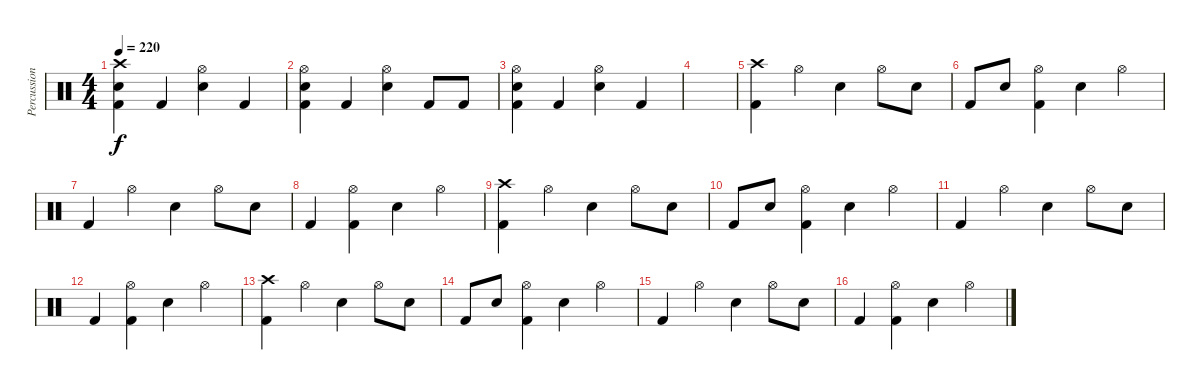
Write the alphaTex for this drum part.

\track ("Percussion" "Percussion") {instrument percussion}
\staff {score}
\articulation defaults
\ts (4 4)
\tempo 220
\clef neutral
\ks c
("Crash high (hit)" "Electric Snare (hit)" "Kick (hit) 2").4{dy f} "Kick (hit) 2".4 ("Hi-Hat (open)" "Electric Snare (hit)").4 "Kick (hit) 2".4 |
("Hi-Hat (open)" "Electric Snare (hit)" "Kick (hit) 2").4 "Kick (hit) 2".4 ("Hi-Hat (open)" "Electric Snare (hit)").4 "Kick (hit) 2".8 "Kick (hit) 2".8 |
("Hi-Hat (open)" "Electric Snare (hit)" "Kick (hit) 2").4 "Kick (hit) 2".4 ("Hi-Hat (open)" "Electric Snare (hit)").4 "Kick (hit) 2".4 |
|
("Crash high (hit)" "Kick (hit) 2").4 "Hi-Hat (open)".4 "Electric Snare (hit)".4 "Hi-Hat (open)".8 "Electric Snare (hit)".8 |
"Kick (hit) 2".8 "Electric Snare (hit)".8 ("Hi-Hat (open)" "Kick (hit) 2").4 "Electric Snare (hit)".4 "Hi-Hat (open)".4 |
"Kick (hit) 2".4 "Hi-Hat (open)".4 "Electric Snare (hit)".4 "Hi-Hat (open)".8 "Electric Snare (hit)".8 |
"Kick (hit) 2".4 ("Hi-Hat (open)" "Kick (hit) 2").4 "Electric Snare (hit)".4 "Hi-Hat (open)".4 |
("Crash high (hit)" "Kick (hit) 2").4 "Hi-Hat (open)".4 "Electric Snare (hit)".4 "Hi-Hat (open)".8 "Electric Snare (hit)".8 |
"Kick (hit) 2".8 "Electric Snare (hit)".8 ("Hi-Hat (open)" "Kick (hit) 2").4 "Electric Snare (hit)".4 "Hi-Hat (open)".4 |
"Kick (hit) 2".4 "Hi-Hat (open)".4 "Electric Snare (hit)".4 "Hi-Hat (open)".8 "Electric Snare (hit)".8 |
"Kick (hit) 2".4 ("Hi-Hat (open)" "Kick (hit) 2").4 "Electric Snare (hit)".4 "Hi-Hat (open)".4 |
("Crash high (hit)" "Kick (hit) 2").4 "Hi-Hat (open)".4 "Electric Snare (hit)".4 "Hi-Hat (open)".8 "Electric Snare (hit)".8 |
"Kick (hit) 2".8 "Electric Snare (hit)".8 ("Hi-Hat (open)" "Kick (hit) 2").4 "Electric Snare (hit)".4 "Hi-Hat (open)".4 |
"Kick (hit) 2".4 "Hi-Hat (open)".4 "Electric Snare (hit)".4 "Hi-Hat (open)".8 "Electric Snare (hit)".8 |
"Kick (hit) 2".4 ("Hi-Hat (open)" "Kick (hit) 2").4 "Electric Snare (hit)".4 "Hi-Hat (open)".4
